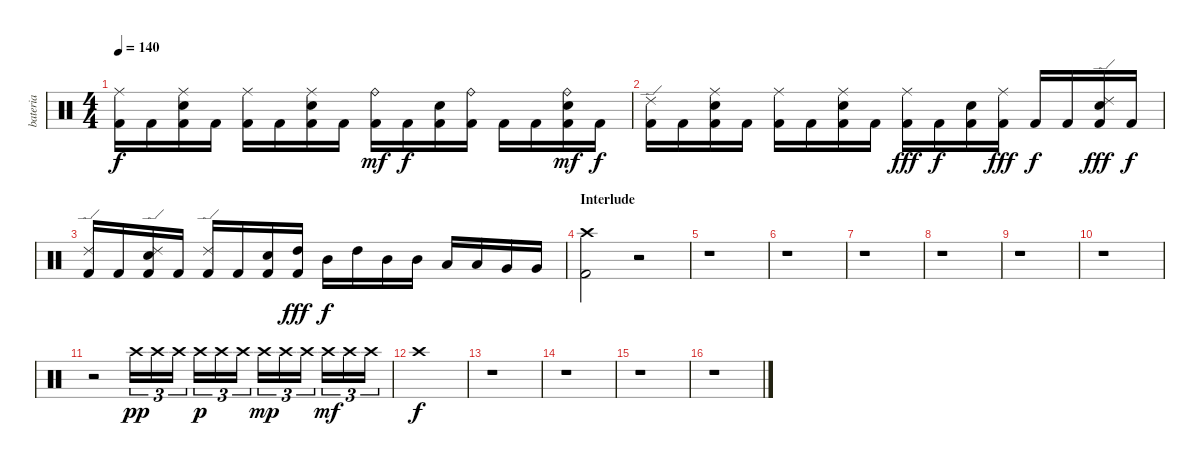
\track ("bateria" "bateria") {instrument percussion}
\staff {score}
\articulation defaults
\ts (4 4)
\tempo 140
\clef neutral
\ks c
("Ride (middle)" "Kick (hit) 2").16{dy f} "Kick (hit) 2".16 ("Ride (middle)" "Electric Snare (hit)" "Kick (hit) 2").16 "Kick (hit) 2".16 ("Ride (middle)" "Kick (hit) 2").16 "Kick (hit) 2".16 ("Ride (middle)" "Electric Snare (hit)" "Kick (hit) 2").16 "Kick (hit) 2".16 ("Ride (bell)" "Kick (hit) 2").16{dy mf} "Kick (hit) 2".16{dy f} ("Electric Snare (hit)" "Kick (hit) 2").16 ("Ride (bell)" "Kick (hit) 2").16 "Kick (hit) 2".16 "Kick (hit) 2".16 ("Ride (bell)" "Electric Snare (hit)" "Kick (hit) 2").16{dy mf} "Kick (hit) 2".16{dy f} |
("Ride (edge) 2" "Kick (hit) 2").16 "Kick (hit) 2".16 ("Ride (middle)" "Electric Snare (hit)" "Kick (hit) 2").16 "Kick (hit) 2".16 ("Ride (middle)" "Kick (hit) 2").16 "Kick (hit) 2".16 ("Ride (middle)" "Electric Snare (hit)" "Kick (hit) 2").16 "Kick (hit) 2".16 ("Ride (middle)" "Kick (hit) 2").16{dy fff} "Kick (hit) 2".16{dy f} ("Electric Snare (hit)" "Kick (hit) 2").16 ("Ride (middle)" "Kick (hit) 2").16{dy fff} "Kick (hit) 2".16{dy f} "Kick (hit) 2".16 ("Ride (edge) 2" "Electric Snare (hit)" "Kick (hit) 2").16{dy fff} "Kick (hit) 2".16{dy f} |
("Ride (edge) 2" "Kick (hit) 2").16 "Kick (hit) 2".16 ("Ride (edge) 2" "Electric Snare (hit)" "Kick (hit) 2").16 "Kick (hit) 2".16 ("Ride (edge) 2" "Kick (hit) 2").16 "Kick (hit) 2".16 ("Electric Snare (hit)" "Kick (hit) 2").16 ("High Tom (hit)" "Kick (hit) 2").16{dy fff} "Mid Tom (hit)".16{dy f} "High Tom (hit)".16 "Mid Tom (hit)".16 "Mid Tom (hit)".16 "Low Tom (hit)".16 "Low Tom (hit)".16 "Very Low Tom (hit)".16 "Very Low Tom (hit)".16 |
\section ("" "Interlude")
("Crash high (hit)" "Kick (hit) 2").2 r.2 |
r.1 |
r.1 |
r.1 |
r.1 |
r.1 |
r.1 |
r.2 "Crash high (hit)".16{tu (3 2) dy pp} "Crash high (hit)".16{tu (3 2)} "Crash high (hit)".16{tu (3 2)} "Crash high (hit)".16{tu (3 2) dy p} "Crash high (hit)".16{tu (3 2)} "Crash high (hit)".16{tu (3 2)} "Crash high (hit)".16{tu (3 2) dy mp} "Crash high (hit)".16{tu (3 2)} "Crash high (hit)".16{tu (3 2)} "Crash high (hit)".16{tu (3 2) dy mf} "Crash high (hit)".16{tu (3 2)} "Crash high (hit)".16{tu (3 2)} |
"Crash high (hit)".1{dy f} |
r.1 |
r.1 |
r.1 |
r.1
